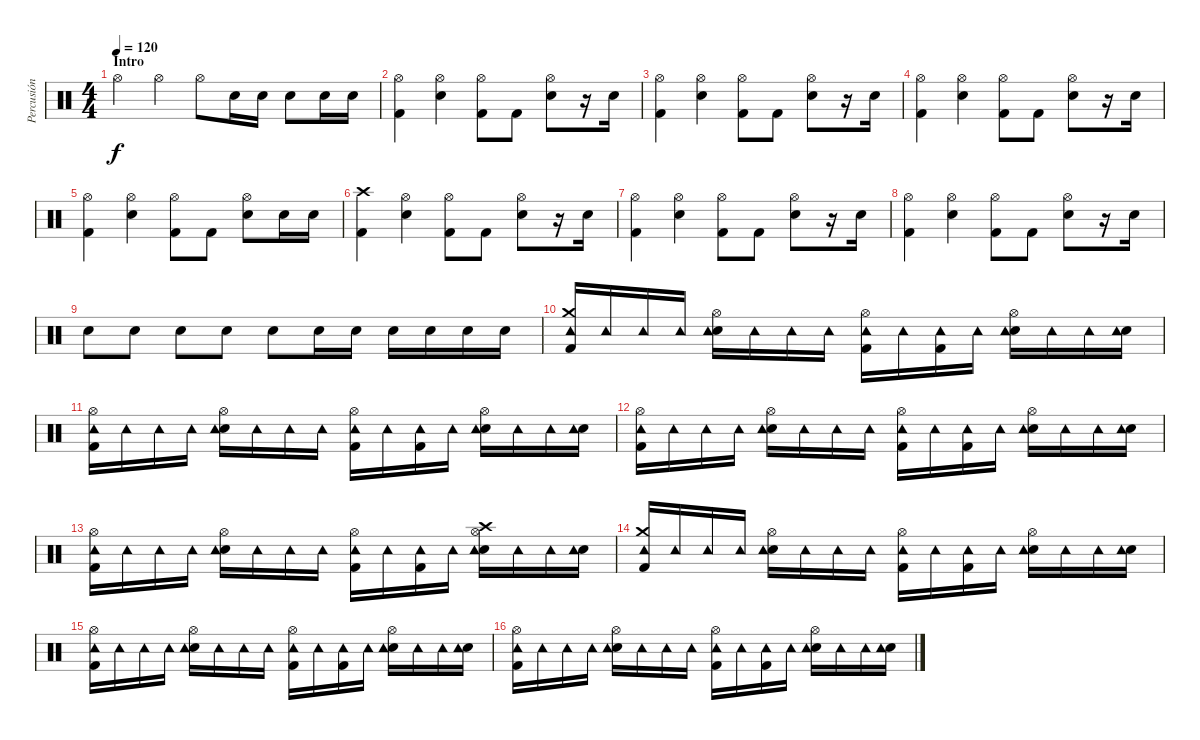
\track ("Percusión" "Percusión") {instrument percussion}
\staff {score}
\articulation defaults
\ts (4 4)
\section ("" "Intro")
\tempo 120
\clef neutral
\ks c "Hi-Hat (open)".4{dy f} "Hi-Hat (open)".4 "Hi-Hat (open)".8 "Electric Snare (hit)".16 "Electric Snare (hit)".16 "Electric Snare (hit)".8 "Electric Snare (hit)".16 "Electric Snare (hit)".16
|
("Hi-Hat (open)" "Kick (hit) 2").4 ("Hi-Hat (open)" "Electric Snare (hit)").4 ("Hi-Hat (open)" "Kick (hit) 2").8 "Kick (hit) 2".8 ("Hi-Hat (open)" "Electric Snare (hit)").8 r.16 "Electric Snare (hit)".16 |
("Hi-Hat (open)" "Kick (hit) 2").4 ("Hi-Hat (open)" "Electric Snare (hit)").4 ("Hi-Hat (open)" "Kick (hit) 2").8 "Kick (hit) 2".8 ("Hi-Hat (open)" "Electric Snare (hit)").8 r.16 "Electric Snare (hit)".16 |
("Hi-Hat (open)" "Kick (hit) 2").4 ("Hi-Hat (open)" "Electric Snare (hit)").4 ("Hi-Hat (open)" "Kick (hit) 2").8 "Kick (hit) 2".8 ("Hi-Hat (open)" "Electric Snare (hit)").8 r.16 "Electric Snare (hit)".16 |
("Hi-Hat (open)" "Kick (hit) 2").4 ("Hi-Hat (open)" "Electric Snare (hit)").4 ("Hi-Hat (open)" "Kick (hit) 2").8 "Kick (hit) 2".8 ("Hi-Hat (open)" "Electric Snare (hit)").8 "Electric Snare (hit)".16 "Electric Snare (hit)".16 |
("Crash high (hit)" "Kick (hit) 2").4 ("Hi-Hat (open)" "Electric Snare (hit)").4 ("Hi-Hat (open)" "Kick (hit) 2").8 "Kick (hit) 2".8 ("Hi-Hat (open)" "Electric Snare (hit)").8 r.16 "Electric Snare (hit)".16 |
("Hi-Hat (open)" "Kick (hit) 2").4 ("Hi-Hat (open)" "Electric Snare (hit)").4 ("Hi-Hat (open)" "Kick (hit) 2").8 "Kick (hit) 2".8 ("Hi-Hat (open)" "Electric Snare (hit)").8 r.16 "Electric Snare (hit)".16 |
("Hi-Hat (open)" "Kick (hit) 2").4 ("Hi-Hat (open)" "Electric Snare (hit)").4 ("Hi-Hat (open)" "Kick (hit) 2").8 "Kick (hit) 2".8 ("Hi-Hat (open)" "Electric Snare (hit)").8 r.16 "Electric Snare (hit)".16 |
"Electric Snare (hit)".8{volume 2} "Electric Snare (hit)".8{volume 6} "Electric Snare (hit)".8{volume 8} "Electric Snare (hit)".8{volume 12} "Electric Snare (hit)".8{volume 14} "Electric Snare (hit)".16 "Electric Snare (hit)".16 "Electric Snare (hit)".16 "Electric Snare (hit)".16 "Electric Snare (hit)".16 "Electric Snare (hit)".16 |
("Crash medium (hit)" "Kick (hit) 2" "Tambourine (hit)").16 "Tambourine (hit)".16 "Tambourine (hit)".16 "Tambourine (hit)".16 ("Hi-Hat (open)" "Electric Snare (hit)" "Tambourine (hit)").16 "Tambourine (hit)".16 "Tambourine (hit)".16 "Tambourine (hit)".16 ("Hi-Hat (open)" "Kick (hit) 2" "Tambourine (hit)").16 "Tambourine (hit)".16 ("Kick (hit) 2" "Tambourine (hit)").16 "Tambourine (hit)".16 ("Hi-Hat (open)" "Electric Snare (hit)" "Tambourine (hit)").16 "Tambourine (hit)".16 "Tambourine (hit)".16 ("Electric Snare (hit)" "Tambourine (hit)").16 |
("Hi-Hat (open)" "Kick (hit) 2" "Tambourine (hit)").16 "Tambourine (hit)".16 "Tambourine (hit)".16 "Tambourine (hit)".16 ("Hi-Hat (open)" "Electric Snare (hit)" "Tambourine (hit)").16 "Tambourine (hit)".16 "Tambourine (hit)".16 "Tambourine (hit)".16 ("Hi-Hat (open)" "Kick (hit) 2" "Tambourine (hit)").16 "Tambourine (hit)".16 ("Kick (hit) 2" "Tambourine (hit)").16 "Tambourine (hit)".16 ("Hi-Hat (open)" "Electric Snare (hit)" "Tambourine (hit)").16 "Tambourine (hit)".16 "Tambourine (hit)".16 ("Electric Snare (hit)" "Tambourine (hit)").16 |
("Hi-Hat (open)" "Kick (hit) 2" "Tambourine (hit)").16 "Tambourine (hit)".16 "Tambourine (hit)".16 "Tambourine (hit)".16 ("Hi-Hat (open)" "Electric Snare (hit)" "Tambourine (hit)").16 "Tambourine (hit)".16 "Tambourine (hit)".16 "Tambourine (hit)".16 ("Hi-Hat (open)" "Kick (hit) 2" "Tambourine (hit)").16 "Tambourine (hit)".16 ("Kick (hit) 2" "Tambourine (hit)").16 "Tambourine (hit)".16 ("Hi-Hat (open)" "Electric Snare (hit)" "Tambourine (hit)").16 "Tambourine (hit)".16 "Tambourine (hit)".16 ("Electric Snare (hit)" "Tambourine (hit)").16 |
("Hi-Hat (open)" "Kick (hit) 2" "Tambourine (hit)").16 "Tambourine (hit)".16 "Tambourine (hit)".16 "Tambourine (hit)".16 ("Hi-Hat (open)" "Electric Snare (hit)" "Tambourine (hit)").16 "Tambourine (hit)".16 "Tambourine (hit)".16 "Tambourine (hit)".16 ("Hi-Hat (open)" "Kick (hit) 2" "Tambourine (hit)").16 "Tambourine (hit)".16 ("Kick (hit) 2" "Tambourine (hit)").16 "Tambourine (hit)".16 ("Hi-Hat (open)" "Crash high (hit)" "Electric Snare (hit)" "Tambourine (hit)").16 "Tambourine (hit)".16 "Tambourine (hit)".16 ("Electric Snare (hit)" "Tambourine (hit)").16 |
("Crash medium (hit)" "Kick (hit) 2" "Tambourine (hit)").16 "Tambourine (hit)".16 "Tambourine (hit)".16 "Tambourine (hit)".16 ("Hi-Hat (open)" "Electric Snare (hit)" "Tambourine (hit)").16 "Tambourine (hit)".16 "Tambourine (hit)".16 "Tambourine (hit)".16 ("Hi-Hat (open)" "Kick (hit) 2" "Tambourine (hit)").16 "Tambourine (hit)".16 ("Kick (hit) 2" "Tambourine (hit)").16 "Tambourine (hit)".16 ("Hi-Hat (open)" "Electric Snare (hit)" "Tambourine (hit)").16 "Tambourine (hit)".16 "Tambourine (hit)".16 ("Electric Snare (hit)" "Tambourine (hit)").16 |
("Hi-Hat (open)" "Kick (hit) 2" "Tambourine (hit)").16 "Tambourine (hit)".16 "Tambourine (hit)".16 "Tambourine (hit)".16 ("Hi-Hat (open)" "Electric Snare (hit)" "Tambourine (hit)").16 "Tambourine (hit)".16 "Tambourine (hit)".16 "Tambourine (hit)".16 ("Hi-Hat (open)" "Kick (hit) 2" "Tambourine (hit)").16 "Tambourine (hit)".16 ("Kick (hit) 2" "Tambourine (hit)").16 "Tambourine (hit)".16 ("Hi-Hat (open)" "Electric Snare (hit)" "Tambourine (hit)").16 "Tambourine (hit)".16 "Tambourine (hit)".16 ("Electric Snare (hit)" "Tambourine (hit)").16 |
("Hi-Hat (open)" "Kick (hit) 2" "Tambourine (hit)").16 "Tambourine (hit)".16 "Tambourine (hit)".16 "Tambourine (hit)".16 ("Hi-Hat (open)" "Electric Snare (hit)" "Tambourine (hit)").16 "Tambourine (hit)".16 "Tambourine (hit)".16 "Tambourine (hit)".16 ("Hi-Hat (open)" "Kick (hit) 2" "Tambourine (hit)").16 "Tambourine (hit)".16 ("Kick (hit) 2" "Tambourine (hit)").16 "Tambourine (hit)".16 ("Hi-Hat (open)" "Electric Snare (hit)" "Tambourine (hit)").16 "Tambourine (hit)".16 "Tambourine (hit)".16 ("Electric Snare (hit)" "Tambourine (hit)").16
